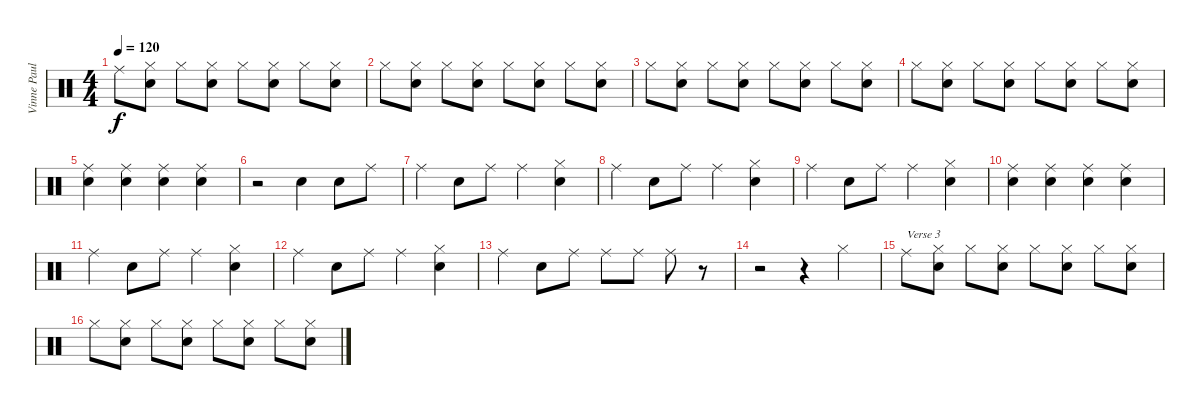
\track ("Vinne Paul cymbals and tom" "Vinne Paul") {instrument percussion}
\staff {score}
\articulation defaults
\ts (4 4)
\tempo 120
\clef neutral
\ks c "Ride (middle)".8{dy f}
("Hi-Hat (closed)" "Electric Snare (hit)").8 "Hi-Hat (closed)".8 ("Hi-Hat (closed)" "Electric Snare (hit)").8 "Hi-Hat (closed)".8 ("Hi-Hat (closed)" "Electric Snare (hit)").8 "Hi-Hat (closed)".8 ("Hi-Hat (closed)" "Electric Snare (hit)").8 |
"Hi-Hat (closed)".8 ("Hi-Hat (closed)" "Electric Snare (hit)").8 "Hi-Hat (closed)".8 ("Hi-Hat (closed)" "Electric Snare (hit)").8 "Hi-Hat (closed)".8 ("Hi-Hat (closed)" "Electric Snare (hit)").8 "Hi-Hat (closed)".8 ("Hi-Hat (closed)" "Electric Snare (hit)").8 |
"Hi-Hat (closed)".8 ("Hi-Hat (closed)" "Electric Snare (hit)").8 "Hi-Hat (closed)".8 ("Hi-Hat (closed)" "Electric Snare (hit)").8 "Hi-Hat (closed)".8 ("Hi-Hat (closed)" "Electric Snare (hit)").8 "Hi-Hat (closed)".8 ("Hi-Hat (closed)" "Electric Snare (hit)").8 |
"Hi-Hat (closed)".8 ("Hi-Hat (closed)" "Electric Snare (hit)").8 "Hi-Hat (closed)".8 ("Hi-Hat (closed)" "Electric Snare (hit)").8 "Hi-Hat (closed)".8 ("Hi-Hat (closed)" "Electric Snare (hit)").8 "Hi-Hat (closed)".8 ("Hi-Hat (closed)" "Electric Snare (hit)").8 |
("Ride (middle)" "Electric Snare (hit)").4 ("Ride (middle)" "Electric Snare (hit)").4 ("Ride (middle)" "Electric Snare (hit)").4 ("Ride (middle)" "Electric Snare (hit)").4 |
r.2 "Electric Snare (hit)".4 "Electric Snare (hit)".8 "Ride (middle)".8 |
"Ride (middle)".4 "Electric Snare (hit)".8 "Ride (middle)".8 "Ride (middle)".4 ("Hi-Hat (closed)" "Electric Snare (hit)").4 |
"Ride (middle)".4 "Electric Snare (hit)".8 "Ride (middle)".8 "Ride (middle)".4 ("Hi-Hat (closed)" "Electric Snare (hit)").4 |
"Ride (middle)".4 "Electric Snare (hit)".8 "Ride (middle)".8 "Ride (middle)".4 ("Hi-Hat (closed)" "Electric Snare (hit)").4 |
("Ride (middle)" "Electric Snare (hit)").4 ("Ride (middle)" "Electric Snare (hit)").4 ("Ride (middle)" "Electric Snare (hit)").4 ("Ride (middle)" "Electric Snare (hit)").4 |
"Ride (middle)".4 "Electric Snare (hit)".8 "Ride (middle)".8 "Ride (middle)".4 ("Hi-Hat (closed)" "Electric Snare (hit)").4 |
"Ride (middle)".4 "Electric Snare (hit)".8 "Ride (middle)".8 "Ride (middle)".4 ("Hi-Hat (closed)" "Electric Snare (hit)").4 |
"Ride (middle)".4 "Electric Snare (hit)".8 "Ride (middle)".8 "Ride (middle)".8 "Ride (middle)".8 "Ride (middle)".8 r.8 |
r.2 r.4 "Hi-Hat (closed)".4 |
"Ride (middle)".8{txt "Verse 3"} ("Hi-Hat (closed)" "Electric Snare (hit)").8 "Hi-Hat (closed)".8 ("Hi-Hat (closed)" "Electric Snare (hit)").8 "Hi-Hat (closed)".8 ("Hi-Hat (closed)" "Electric Snare (hit)").8 "Hi-Hat (closed)".8 ("Hi-Hat (closed)" "Electric Snare (hit)").8 |
"Hi-Hat (closed)".8 ("Hi-Hat (closed)" "Electric Snare (hit)").8 "Hi-Hat (closed)".8 ("Hi-Hat (closed)" "Electric Snare (hit)").8 "Hi-Hat (closed)".8 ("Hi-Hat (closed)" "Electric Snare (hit)").8 "Hi-Hat (closed)".8 ("Hi-Hat (closed)" "Electric Snare (hit)").8
